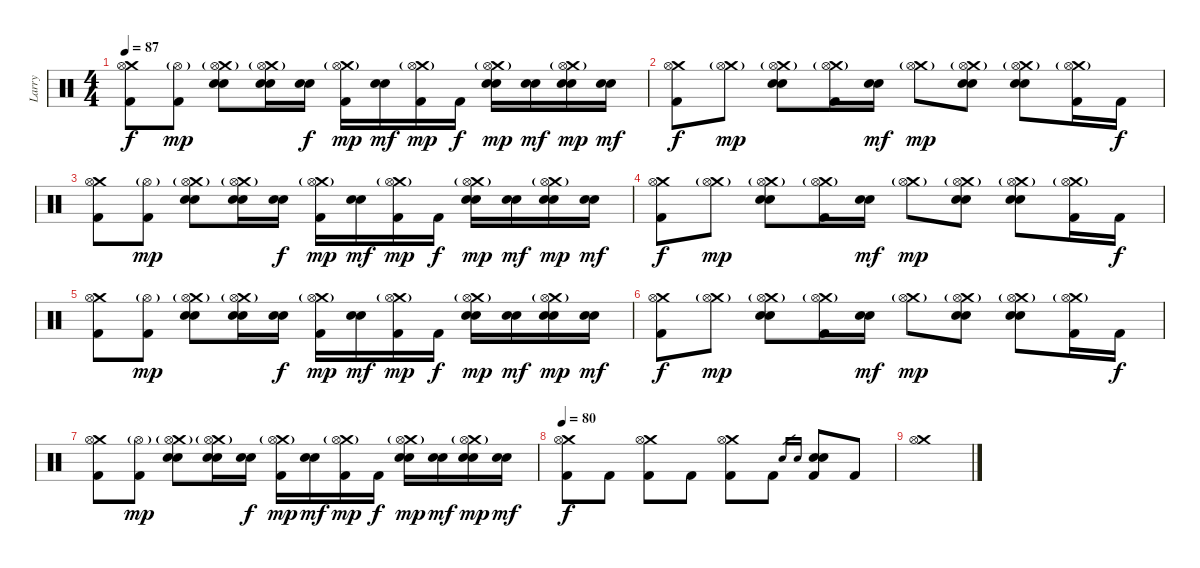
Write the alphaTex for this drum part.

\track ("Larry" "Larry") {instrument percussion}
\staff {score}
\articulation defaults
\ts (4 4)
\tempo 87
\clef neutral
\ks c
("Crash medium (hit)" "Kick (hit) 2" "Hi-Hat (open)").8{dy f} ("Kick (hit) 2" "Hi-Hat (open)"{g}).8{dy mp} ("Crash medium (hit)"{g} "Snare (hit) 2" "Electric Snare (hit)" "Hi-Hat (open)"{g}).8 ("Crash medium (hit)"{g} "Snare (hit) 2" "Electric Snare (hit)" "Hi-Hat (open)"{g}).16 ("Snare (hit) 2" "Electric Snare (hit)").16{dy f} ("Crash medium (hit)"{g} "Kick (hit) 2" "Hi-Hat (open)"{g}).16{dy mp} ("Snare (hit) 2" "Electric Snare (hit)").16{dy mf} ("Crash medium (hit)"{g} "Kick (hit) 2" "Hi-Hat (open)"{g}).16{dy mp} "Kick (hit) 2".16{dy f} ("Crash medium (hit)"{g} "Snare (hit) 2" "Electric Snare (hit)" "Hi-Hat (open)"{g}).16{dy mp} ("Snare (hit) 2" "Electric Snare (hit)").16{dy mf} ("Crash medium (hit)"{g} "Snare (hit) 2" "Electric Snare (hit)" "Hi-Hat (open)"{g}).16{dy mp} ("Snare (hit) 2" "Electric Snare (hit)").16{dy mf} |
("Crash medium (hit)" "Kick (hit) 2" "Hi-Hat (open)").8{dy f} ("Crash medium (hit)"{g} "Hi-Hat (open)"{g}).8{dy mp} ("Crash medium (hit)"{g} "Snare (hit) 2" "Electric Snare (hit)" "Hi-Hat (open)"{g}).8 ("Crash medium (hit)"{g} "Kick (hit) 2" "Hi-Hat (open)"{g}).16 ("Snare (hit) 2" "Electric Snare (hit)").16{dy mf} ("Crash medium (hit)"{g} "Hi-Hat (open)"{g}).8{dy mp} ("Crash medium (hit)"{g} "Snare (hit) 2" "Electric Snare (hit)" "Hi-Hat (open)"{g}).8 ("Crash medium (hit)"{g} "Snare (hit) 2" "Electric Snare (hit)" "Hi-Hat (open)"{g}).8 ("Crash medium (hit)"{g} "Kick (hit) 2" "Hi-Hat (open)"{g}).16 "Kick (hit) 2".16{dy f} |
("Crash medium (hit)" "Kick (hit) 2" "Hi-Hat (open)").8 ("Kick (hit) 2" "Hi-Hat (open)"{g}).8{dy mp} ("Crash medium (hit)"{g} "Snare (hit) 2" "Electric Snare (hit)" "Hi-Hat (open)"{g}).8 ("Crash medium (hit)"{g} "Snare (hit) 2" "Electric Snare (hit)" "Hi-Hat (open)"{g}).16 ("Snare (hit) 2" "Electric Snare (hit)").16{dy f} ("Crash medium (hit)"{g} "Kick (hit) 2" "Hi-Hat (open)"{g}).16{dy mp} ("Snare (hit) 2" "Electric Snare (hit)").16{dy mf} ("Crash medium (hit)"{g} "Kick (hit) 2" "Hi-Hat (open)"{g}).16{dy mp} "Kick (hit) 2".16{dy f} ("Crash medium (hit)"{g} "Snare (hit) 2" "Electric Snare (hit)" "Hi-Hat (open)"{g}).16{dy mp} ("Snare (hit) 2" "Electric Snare (hit)").16{dy mf} ("Crash medium (hit)"{g} "Snare (hit) 2" "Electric Snare (hit)" "Hi-Hat (open)"{g}).16{dy mp} ("Snare (hit) 2" "Electric Snare (hit)").16{dy mf} |
("Crash medium (hit)" "Kick (hit) 2" "Hi-Hat (open)").8{dy f} ("Crash medium (hit)"{g} "Hi-Hat (open)"{g}).8{dy mp} ("Crash medium (hit)"{g} "Snare (hit) 2" "Electric Snare (hit)" "Hi-Hat (open)"{g}).8 ("Crash medium (hit)"{g} "Kick (hit) 2" "Hi-Hat (open)"{g}).16 ("Snare (hit) 2" "Electric Snare (hit)").16{dy mf} ("Crash medium (hit)"{g} "Hi-Hat (open)"{g}).8{dy mp} ("Crash medium (hit)"{g} "Snare (hit) 2" "Electric Snare (hit)" "Hi-Hat (open)"{g}).8 ("Crash medium (hit)"{g} "Snare (hit) 2" "Electric Snare (hit)" "Hi-Hat (open)"{g}).8 ("Crash medium (hit)"{g} "Kick (hit) 2" "Hi-Hat (open)"{g}).16 "Kick (hit) 2".16{dy f} |
("Crash medium (hit)" "Kick (hit) 2" "Hi-Hat (open)").8 ("Kick (hit) 2" "Hi-Hat (open)"{g}).8{dy mp} ("Crash medium (hit)"{g} "Snare (hit) 2" "Electric Snare (hit)" "Hi-Hat (open)"{g}).8 ("Crash medium (hit)"{g} "Snare (hit) 2" "Electric Snare (hit)" "Hi-Hat (open)"{g}).16 ("Snare (hit) 2" "Electric Snare (hit)").16{dy f} ("Crash medium (hit)"{g} "Kick (hit) 2" "Hi-Hat (open)"{g}).16{dy mp} ("Snare (hit) 2" "Electric Snare (hit)").16{dy mf} ("Crash medium (hit)"{g} "Kick (hit) 2" "Hi-Hat (open)"{g}).16{dy mp} "Kick (hit) 2".16{dy f} ("Crash medium (hit)"{g} "Snare (hit) 2" "Electric Snare (hit)" "Hi-Hat (open)"{g}).16{dy mp} ("Snare (hit) 2" "Electric Snare (hit)").16{dy mf} ("Crash medium (hit)"{g} "Snare (hit) 2" "Electric Snare (hit)" "Hi-Hat (open)"{g}).16{dy mp} ("Snare (hit) 2" "Electric Snare (hit)").16{dy mf} |
("Crash medium (hit)" "Kick (hit) 2" "Hi-Hat (open)").8{dy f} ("Crash medium (hit)"{g} "Hi-Hat (open)"{g}).8{dy mp} ("Crash medium (hit)"{g} "Snare (hit) 2" "Electric Snare (hit)" "Hi-Hat (open)"{g}).8 ("Crash medium (hit)"{g} "Kick (hit) 2" "Hi-Hat (open)"{g}).16 ("Snare (hit) 2" "Electric Snare (hit)").16{dy mf} ("Crash medium (hit)"{g} "Hi-Hat (open)"{g}).8{dy mp} ("Crash medium (hit)"{g} "Snare (hit) 2" "Electric Snare (hit)" "Hi-Hat (open)"{g}).8 ("Crash medium (hit)"{g} "Snare (hit) 2" "Electric Snare (hit)" "Hi-Hat (open)"{g}).8 ("Crash medium (hit)"{g} "Kick (hit) 2" "Hi-Hat (open)"{g}).16 "Kick (hit) 2".16{dy f} |
("Crash medium (hit)" "Kick (hit) 2" "Hi-Hat (open)").8 ("Kick (hit) 2" "Hi-Hat (open)"{g}).8{dy mp} ("Crash medium (hit)"{g} "Snare (hit) 2" "Electric Snare (hit)" "Hi-Hat (open)"{g}).8 ("Crash medium (hit)"{g} "Snare (hit) 2" "Electric Snare (hit)" "Hi-Hat (open)"{g}).16 ("Snare (hit) 2" "Electric Snare (hit)").16{dy f} ("Crash medium (hit)"{g} "Kick (hit) 2" "Hi-Hat (open)"{g}).16{dy mp} ("Snare (hit) 2" "Electric Snare (hit)").16{dy mf} ("Crash medium (hit)"{g} "Kick (hit) 2" "Hi-Hat (open)"{g}).16{dy mp} "Kick (hit) 2".16{dy f} ("Crash medium (hit)"{g} "Snare (hit) 2" "Electric Snare (hit)" "Hi-Hat (open)"{g}).16{dy mp} ("Snare (hit) 2" "Electric Snare (hit)").16{dy mf} ("Crash medium (hit)"{g} "Snare (hit) 2" "Electric Snare (hit)" "Hi-Hat (open)"{g}).16{dy mp} ("Snare (hit) 2" "Electric Snare (hit)").16{dy mf} |
\tempo 80
("Crash medium (hit)" "Kick (hit) 2" "Hi-Hat (open)").8{dy f} "Kick (hit) 2".8 ("Crash medium (hit)" "Kick (hit) 2" "Hi-Hat (open)").8 "Kick (hit) 2".8 ("Crash medium (hit)" "Kick (hit) 2" "Hi-Hat (open)").8 "Kick (hit) 2".8 "Snare (hit) 2".16{gr} "Electric Snare (hit)".16{gr} ("Snare (hit) 2" "Electric Snare (hit)" "Kick (hit) 2").8 "Kick (hit) 2".8 |
("Crash medium (hit)" "Hi-Hat (open)").1
